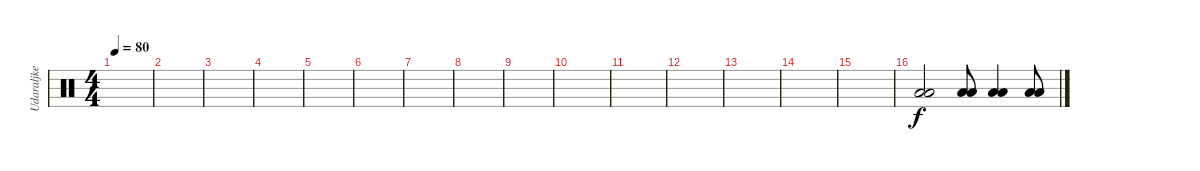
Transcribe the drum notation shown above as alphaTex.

\track ("Udaraljke" "Udaraljke") {instrument percussion}
\staff {score}
\articulation defaults
\ts (4 4)
\tempo 80
\clef neutral
\ks c
|
|
|
|
|
|
|
|
|
|
|
|
|
|
|
("Low Floor Tom (hit)" "Low Floor Tom (hit)").2 ("Low Floor Tom (hit)" "Low Floor Tom (hit)").8 ("Low Floor Tom (hit)" "Low Floor Tom (hit)").4 ("Low Floor Tom (hit)" "Low Floor Tom (hit)").8
